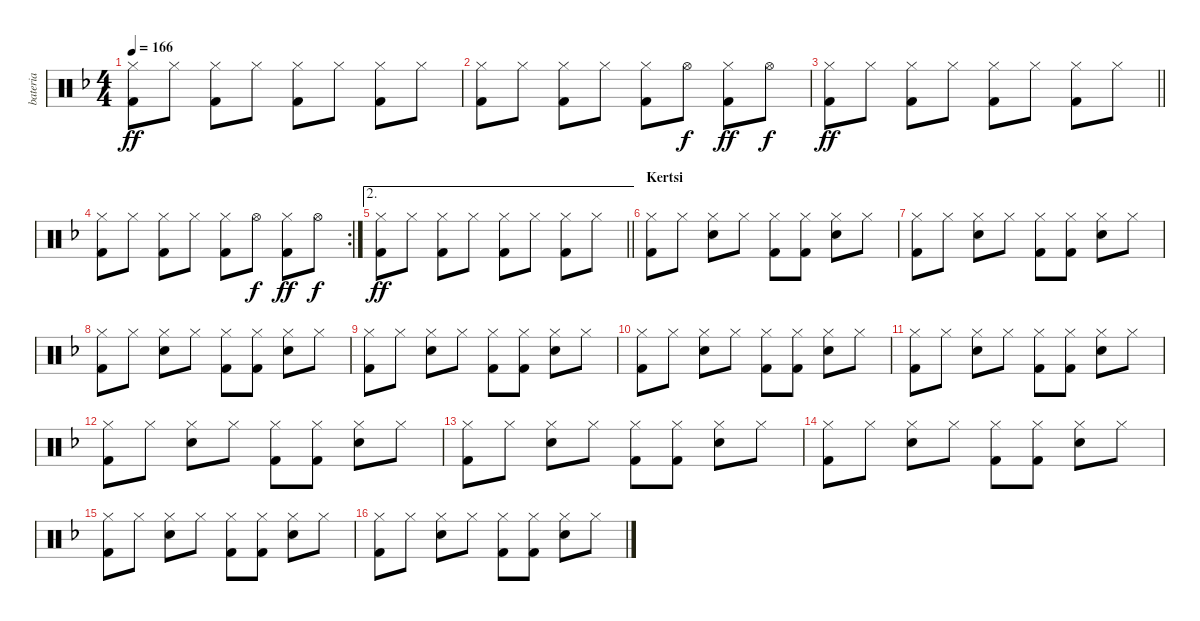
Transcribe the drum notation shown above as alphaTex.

\track ("bateria" "bateria") {instrument percussion}
\staff {score}
\articulation defaults
\ts (4 4)
\tempo 166
\clef neutral
\ks f
("Hi-Hat (closed)" "Kick (hit) 2").8{dy ff} "Hi-Hat (closed)".8 ("Hi-Hat (closed)" "Kick (hit) 2").8 "Hi-Hat (closed)".8 ("Hi-Hat (closed)" "Kick (hit) 2").8 "Hi-Hat (closed)".8 ("Hi-Hat (closed)" "Kick (hit) 2").8 "Hi-Hat (closed)".8 |
("Hi-Hat (closed)" "Kick (hit) 2").8 "Hi-Hat (closed)".8 ("Hi-Hat (closed)" "Kick (hit) 2").8 "Hi-Hat (closed)".8 ("Hi-Hat (closed)" "Kick (hit) 2").8 "Hi-Hat (open)".8{dy f} ("Hi-Hat (closed)" "Kick (hit) 2").8{dy ff} "Hi-Hat (open)".8{dy f} |
\barLineRight lightlight
("Hi-Hat (closed)" "Kick (hit) 2").8{dy ff} "Hi-Hat (closed)".8 ("Hi-Hat (closed)" "Kick (hit) 2").8 "Hi-Hat (closed)".8 ("Hi-Hat (closed)" "Kick (hit) 2").8 "Hi-Hat (closed)".8 ("Hi-Hat (closed)" "Kick (hit) 2").8 "Hi-Hat (closed)".8 |
\rc 2
("Hi-Hat (closed)" "Kick (hit) 2").8 "Hi-Hat (closed)".8 ("Hi-Hat (closed)" "Kick (hit) 2").8 "Hi-Hat (closed)".8 ("Hi-Hat (closed)" "Kick (hit) 2").8 "Hi-Hat (open)".8{dy f} ("Hi-Hat (closed)" "Kick (hit) 2").8{dy ff} "Hi-Hat (open)".8{dy f} |
\ae 2
\barLineRight lightlight
("Hi-Hat (closed)" "Kick (hit) 2").8{dy ff} "Hi-Hat (closed)".8 ("Hi-Hat (closed)" "Kick (hit) 2").8 "Hi-Hat (closed)".8 ("Hi-Hat (closed)" "Kick (hit) 2").8 "Hi-Hat (closed)".8 ("Hi-Hat (closed)" "Kick (hit) 2").8 "Hi-Hat (closed)".8 |
\section ("" "Kertsi")
("Hi-Hat (closed)" "Kick (hit) 2").8 "Hi-Hat (closed)".8 ("Hi-Hat (closed)" "Electric Snare (hit)").8 "Hi-Hat (closed)".8 ("Hi-Hat (closed)" "Kick (hit) 2").8 ("Hi-Hat (closed)" "Kick (hit) 2").8 ("Hi-Hat (closed)" "Electric Snare (hit)").8 "Hi-Hat (closed)".8 |
("Hi-Hat (closed)" "Kick (hit) 2").8 "Hi-Hat (closed)".8 ("Hi-Hat (closed)" "Electric Snare (hit)").8 "Hi-Hat (closed)".8 ("Hi-Hat (closed)" "Kick (hit) 2").8 ("Hi-Hat (closed)" "Kick (hit) 2").8 ("Hi-Hat (closed)" "Electric Snare (hit)").8 "Hi-Hat (closed)".8 |
("Hi-Hat (closed)" "Kick (hit) 2").8 "Hi-Hat (closed)".8 ("Hi-Hat (closed)" "Electric Snare (hit)").8 "Hi-Hat (closed)".8 ("Hi-Hat (closed)" "Kick (hit) 2").8 ("Hi-Hat (closed)" "Kick (hit) 2").8 ("Hi-Hat (closed)" "Electric Snare (hit)").8 "Hi-Hat (closed)".8 |
("Hi-Hat (closed)" "Kick (hit) 2").8 "Hi-Hat (closed)".8 ("Hi-Hat (closed)" "Electric Snare (hit)").8 "Hi-Hat (closed)".8 ("Hi-Hat (closed)" "Kick (hit) 2").8 ("Hi-Hat (closed)" "Kick (hit) 2").8 ("Hi-Hat (closed)" "Electric Snare (hit)").8 "Hi-Hat (closed)".8 |
("Hi-Hat (closed)" "Kick (hit) 2").8 "Hi-Hat (closed)".8 ("Hi-Hat (closed)" "Electric Snare (hit)").8 "Hi-Hat (closed)".8 ("Hi-Hat (closed)" "Kick (hit) 2").8 ("Hi-Hat (closed)" "Kick (hit) 2").8 ("Hi-Hat (closed)" "Electric Snare (hit)").8 "Hi-Hat (closed)".8 |
("Hi-Hat (closed)" "Kick (hit) 2").8 "Hi-Hat (closed)".8 ("Hi-Hat (closed)" "Electric Snare (hit)").8 "Hi-Hat (closed)".8 ("Hi-Hat (closed)" "Kick (hit) 2").8 ("Hi-Hat (closed)" "Kick (hit) 2").8 ("Hi-Hat (closed)" "Electric Snare (hit)").8 "Hi-Hat (closed)".8 |
("Hi-Hat (closed)" "Kick (hit) 2").8 "Hi-Hat (closed)".8 ("Hi-Hat (closed)" "Electric Snare (hit)").8 "Hi-Hat (closed)".8 ("Hi-Hat (closed)" "Kick (hit) 2").8 ("Hi-Hat (closed)" "Kick (hit) 2").8 ("Hi-Hat (closed)" "Electric Snare (hit)").8 "Hi-Hat (closed)".8 |
("Hi-Hat (closed)" "Kick (hit) 2").8 "Hi-Hat (closed)".8 ("Hi-Hat (closed)" "Electric Snare (hit)").8 "Hi-Hat (closed)".8 ("Hi-Hat (closed)" "Kick (hit) 2").8 ("Hi-Hat (closed)" "Kick (hit) 2").8 ("Hi-Hat (closed)" "Electric Snare (hit)").8 "Hi-Hat (closed)".8 |
("Hi-Hat (closed)" "Kick (hit) 2").8 "Hi-Hat (closed)".8 ("Hi-Hat (closed)" "Electric Snare (hit)").8 "Hi-Hat (closed)".8 ("Hi-Hat (closed)" "Kick (hit) 2").8 ("Hi-Hat (closed)" "Kick (hit) 2").8 ("Hi-Hat (closed)" "Electric Snare (hit)").8 "Hi-Hat (closed)".8 |
("Hi-Hat (closed)" "Kick (hit) 2").8 "Hi-Hat (closed)".8 ("Hi-Hat (closed)" "Electric Snare (hit)").8 "Hi-Hat (closed)".8 ("Hi-Hat (closed)" "Kick (hit) 2").8 ("Hi-Hat (closed)" "Kick (hit) 2").8 ("Hi-Hat (closed)" "Electric Snare (hit)").8 "Hi-Hat (closed)".8 |
("Hi-Hat (closed)" "Kick (hit) 2").8 "Hi-Hat (closed)".8 ("Hi-Hat (closed)" "Electric Snare (hit)").8 "Hi-Hat (closed)".8 ("Hi-Hat (closed)" "Kick (hit) 2").8 ("Hi-Hat (closed)" "Kick (hit) 2").8 ("Hi-Hat (closed)" "Electric Snare (hit)").8 "Hi-Hat (closed)".8
